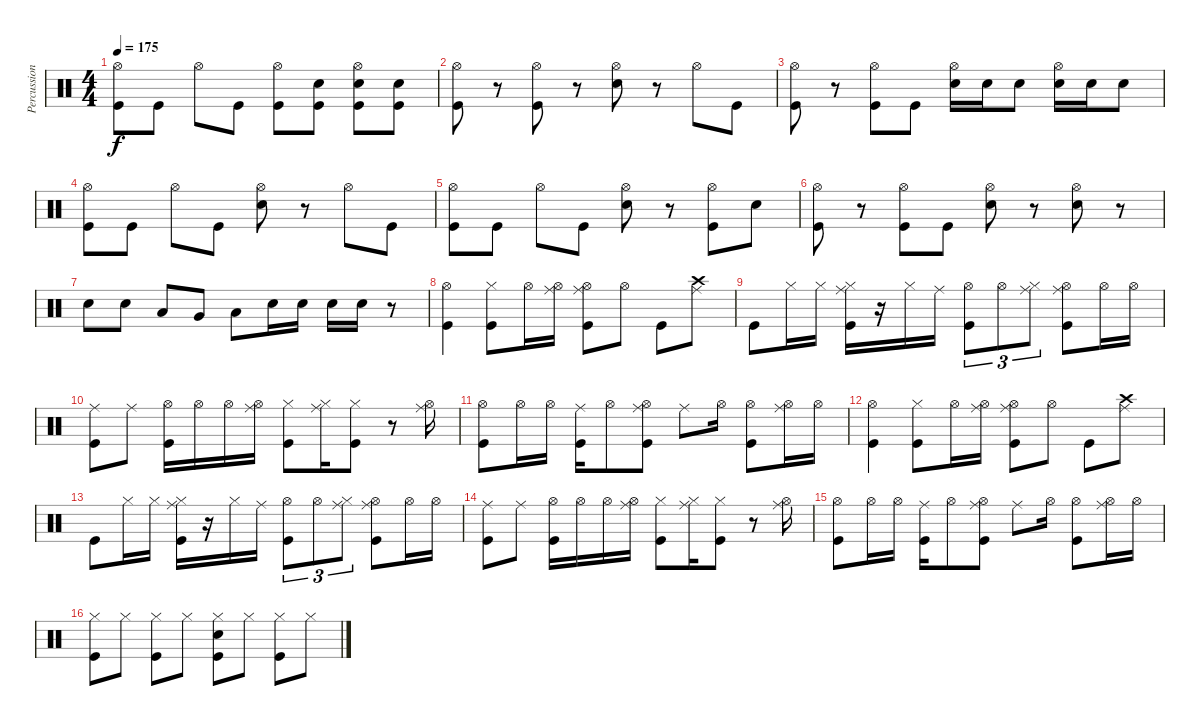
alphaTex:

\track ("Percussions" "Percussion") {instrument percussion}
\staff {score}
\articulation defaults
\ts (4 4)
\tempo 175
\clef neutral
\ks c
("Hi-Hat (open)" "Kick (hit)").8{dy f} "Kick (hit)".8 "Hi-Hat (open)".8 "Kick (hit)".8 ("Hi-Hat (open)" "Kick (hit)").8 ("Snare (hit) 2" "Kick (hit)").8 ("Hi-Hat (open)" "Snare (hit) 2" "Kick (hit)").8 ("Snare (hit) 2" "Kick (hit)").8 |
("Hi-Hat (open)" "Kick (hit)").8 r.8 ("Hi-Hat (open)" "Kick (hit)").8 r.8 ("Hi-Hat (open)" "Snare (hit) 2").8 r.8 "Hi-Hat (open)".8 "Kick (hit)".8 |
("Hi-Hat (open)" "Kick (hit)").8 r.8 ("Hi-Hat (open)" "Kick (hit)").8 "Kick (hit)".8 ("Hi-Hat (open)" "Snare (hit) 2").16 "Snare (hit) 2".16 "Snare (hit) 2".8 ("Hi-Hat (open)" "Snare (hit) 2").16 "Snare (hit) 2".16 "Snare (hit) 2".8 |
("Hi-Hat (open)" "Kick (hit)").8 "Kick (hit)".8 "Hi-Hat (open)".8 "Kick (hit)".8 ("Hi-Hat (open)" "Snare (hit) 2").8 r.8 "Hi-Hat (open)".8 "Kick (hit)".8 |
("Hi-Hat (open)" "Kick (hit)").8 "Kick (hit)".8 "Hi-Hat (open)".8 "Kick (hit)".8 ("Hi-Hat (open)" "Snare (hit) 2").8 r.8 ("Hi-Hat (open)" "Kick (hit)").8 "Snare (hit) 2".8 |
("Hi-Hat (open)" "Kick (hit)").8 r.8 ("Hi-Hat (open)" "Kick (hit)").8 "Kick (hit)".8 ("Hi-Hat (open)" "Snare (hit) 2").8 r.8 ("Hi-Hat (open)" "Snare (hit) 2").8 r.8 |
"Snare (hit) 2".8 "Snare (hit) 2".8 "Low Tom (hit)".8 "Very Low Tom (hit)".8 "Low Floor Tom (hit)".8 "Snare (hit) 2".16 "Snare (hit) 2".16 "Snare (hit) 2".16 "Snare (hit) 2".16 r.8 |
("Hi-Hat (open)" "Kick (hit)").4 ("Hi-Hat (closed)" "Kick (hit)").8 "Hi-Hat (open)".16 ("Hi-Hat (open)" "Ride (middle)").16 ("Hi-Hat (open)" "Ride (middle)" "Kick (hit)").8 "Hi-Hat (open)".8 "Kick (hit)".8 ("Crash high (hit)" "Ride (middle)").8 |
"Kick (hit)".8 "Hi-Hat (closed)".16 "Hi-Hat (closed)".16 ("Hi-Hat (closed)" "Ride (middle)" "Kick (hit)").16 r.16 "Hi-Hat (closed)".16 "Ride (middle)".16 ("Hi-Hat (open)" "Kick (hit)").8{tu (3 2)} "Hi-Hat (open)".8{tu (3 2)} ("Hi-Hat (closed)" "Ride (middle)").8{tu (3 2)} ("Hi-Hat (open)" "Ride (middle)" "Kick (hit)").8 "Hi-Hat (open)".16 "Hi-Hat (open)".16 |
("Ride (middle)" "Kick (hit)").8 "Ride (middle)".8 ("Hi-Hat (open)" "Kick (hit)").16 "Hi-Hat (open)".16 "Hi-Hat (open)".16 ("Hi-Hat (open)" "Ride (middle)").16 ("Hi-Hat (closed)" "Kick (hit)").8 ("Hi-Hat (closed)" "Ride (middle)").16 ("Hi-Hat (closed)" "Kick (hit)").8 r.8 ("Hi-Hat (open)" "Ride (middle)").16 |
("Hi-Hat (open)" "Kick (hit)").8 "Hi-Hat (open)".16 "Hi-Hat (open)".16 ("Ride (middle)" "Kick (hit)").16 "Hi-Hat (open)".8 ("Hi-Hat (open)" "Ride (middle)" "Kick (hit)").8 "Ride (middle)".8 "Hi-Hat (open)".16 ("Hi-Hat (open)" "Kick (hit)").8 ("Hi-Hat (open)" "Ride (middle)").16 "Hi-Hat (open)".16 |
("Hi-Hat (open)" "Kick (hit)").4 ("Hi-Hat (closed)" "Kick (hit)").8 "Hi-Hat (open)".16 ("Hi-Hat (open)" "Ride (middle)").16 ("Hi-Hat (open)" "Ride (middle)" "Kick (hit)").8 "Hi-Hat (open)".8 "Kick (hit)".8 ("Crash high (hit)" "Ride (middle)").8 |
"Kick (hit)".8 "Hi-Hat (closed)".16 "Hi-Hat (closed)".16 ("Hi-Hat (closed)" "Ride (middle)" "Kick (hit)").16 r.16 "Hi-Hat (closed)".16 "Ride (middle)".16 ("Hi-Hat (open)" "Kick (hit)").8{tu (3 2)} "Hi-Hat (open)".8{tu (3 2)} ("Hi-Hat (closed)" "Ride (middle)").8{tu (3 2)} ("Hi-Hat (open)" "Ride (middle)" "Kick (hit)").8 "Hi-Hat (open)".16 "Hi-Hat (open)".16 |
("Ride (middle)" "Kick (hit)").8 "Ride (middle)".8 ("Hi-Hat (open)" "Kick (hit)").16 "Hi-Hat (open)".16 "Hi-Hat (open)".16 ("Hi-Hat (open)" "Ride (middle)").16 ("Hi-Hat (closed)" "Kick (hit)").8 ("Hi-Hat (closed)" "Ride (middle)").16 ("Hi-Hat (closed)" "Kick (hit)").8 r.8 ("Hi-Hat (open)" "Ride (middle)").16 |
("Hi-Hat (open)" "Kick (hit)").8 "Hi-Hat (open)".16 "Hi-Hat (open)".16 ("Ride (middle)" "Kick (hit)").16 "Hi-Hat (open)".8 ("Hi-Hat (open)" "Ride (middle)" "Kick (hit)").8 "Ride (middle)".8 "Hi-Hat (open)".16 ("Hi-Hat (open)" "Kick (hit)").8 ("Hi-Hat (open)" "Ride (middle)").16 "Hi-Hat (open)".16 |
("Hi-Hat (closed)" "Kick (hit)").8 "Hi-Hat (closed)".8 ("Hi-Hat (closed)" "Kick (hit)").8 "Hi-Hat (closed)".8 ("Hi-Hat (closed)" "Snare (hit) 2" "Kick (hit)").8 "Hi-Hat (closed)".8 ("Hi-Hat (closed)" "Kick (hit)").8 "Hi-Hat (closed)".8
